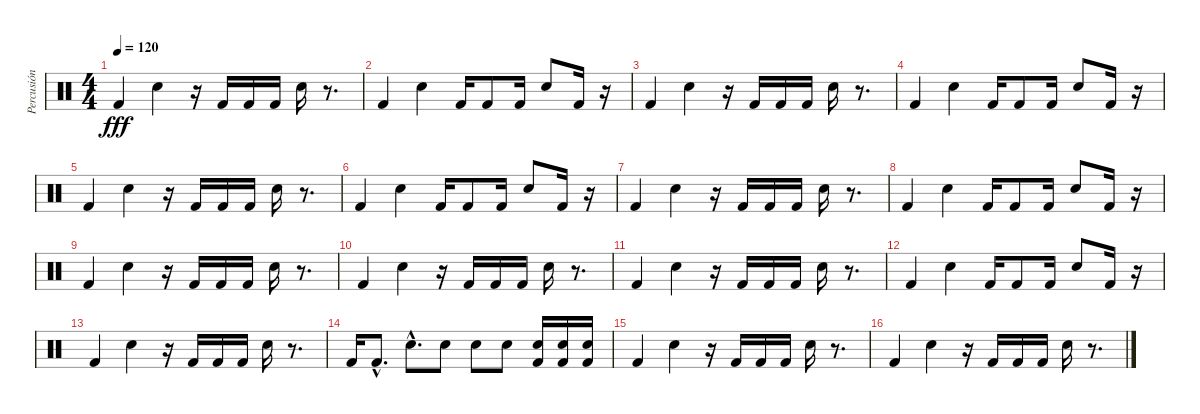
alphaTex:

\track ("Percusión" "Percusión") {instrument percussion}
\staff {score}
\articulation defaults
\ts (4 4)
\tempo 120
\clef neutral
\ks c "Kick (hit) 2".4{dy fff} "Snare (hit) 2".4
r.16 "Kick (hit) 2".16 "Kick (hit) 2".16 "Kick (hit) 2".16 "Snare (hit) 2".16 r.8{d} |
"Kick (hit) 2".4 "Snare (hit) 2".4 "Kick (hit) 2".16 "Kick (hit) 2".8 "Kick (hit) 2".16 "Snare (hit) 2".8 "Kick (hit) 2".16 r.16 |
"Kick (hit) 2".4 "Snare (hit) 2".4 r.16 "Kick (hit) 2".16 "Kick (hit) 2".16 "Kick (hit) 2".16 "Snare (hit) 2".16 r.8{d} |
"Kick (hit) 2".4 "Snare (hit) 2".4 "Kick (hit) 2".16 "Kick (hit) 2".8 "Kick (hit) 2".16 "Snare (hit) 2".8 "Kick (hit) 2".16 r.16 |
"Kick (hit) 2".4 "Snare (hit) 2".4 r.16 "Kick (hit) 2".16 "Kick (hit) 2".16 "Kick (hit) 2".16 "Snare (hit) 2".16 r.8{d} |
"Kick (hit) 2".4 "Snare (hit) 2".4 "Kick (hit) 2".16 "Kick (hit) 2".8 "Kick (hit) 2".16 "Snare (hit) 2".8 "Kick (hit) 2".16 r.16 |
"Kick (hit) 2".4 "Snare (hit) 2".4 r.16 "Kick (hit) 2".16 "Kick (hit) 2".16 "Kick (hit) 2".16 "Snare (hit) 2".16 r.8{d} |
"Kick (hit) 2".4 "Snare (hit) 2".4 "Kick (hit) 2".16 "Kick (hit) 2".8 "Kick (hit) 2".16 "Snare (hit) 2".8 "Kick (hit) 2".16 r.16 |
"Kick (hit) 2".4 "Snare (hit) 2".4 r.16 "Kick (hit) 2".16 "Kick (hit) 2".16 "Kick (hit) 2".16 "Snare (hit) 2".16 r.8{d} |
"Kick (hit) 2".4 "Snare (hit) 2".4 r.16 "Kick (hit) 2".16 "Kick (hit) 2".16 "Kick (hit) 2".16 "Snare (hit) 2".16 r.8{d} |
"Kick (hit) 2".4 "Snare (hit) 2".4 r.16 "Kick (hit) 2".16 "Kick (hit) 2".16 "Kick (hit) 2".16 "Snare (hit) 2".16 r.8{d} |
"Kick (hit) 2".4 "Snare (hit) 2".4 "Kick (hit) 2".16 "Kick (hit) 2".8 "Kick (hit) 2".16 "Snare (hit) 2".8 "Kick (hit) 2".16 r.16 |
"Kick (hit) 2".4 "Snare (hit) 2".4 r.16 "Kick (hit) 2".16 "Kick (hit) 2".16 "Kick (hit) 2".16 "Snare (hit) 2".16 r.8{d} |
"Kick (hit) 2".16 "Kick (hit) 2"{hac}.8{d} "Snare (hit) 2"{hac}.8{d} "Snare (hit) 2".8 "Snare (hit) 2".8 "Snare (hit) 2".8 ("Snare (hit) 2" "Kick (hit) 2").16 ("Snare (hit) 2" "Kick (hit) 2").16 ("Snare (hit) 2" "Kick (hit) 2").16 |
"Kick (hit) 2".4 "Snare (hit) 2".4 r.16 "Kick (hit) 2".16 "Kick (hit) 2".16 "Kick (hit) 2".16 "Snare (hit) 2".16 r.8{d} |
"Kick (hit) 2".4 "Snare (hit) 2".4 r.16 "Kick (hit) 2".16 "Kick (hit) 2".16 "Kick (hit) 2".16 "Snare (hit) 2".16 r.8{d}
